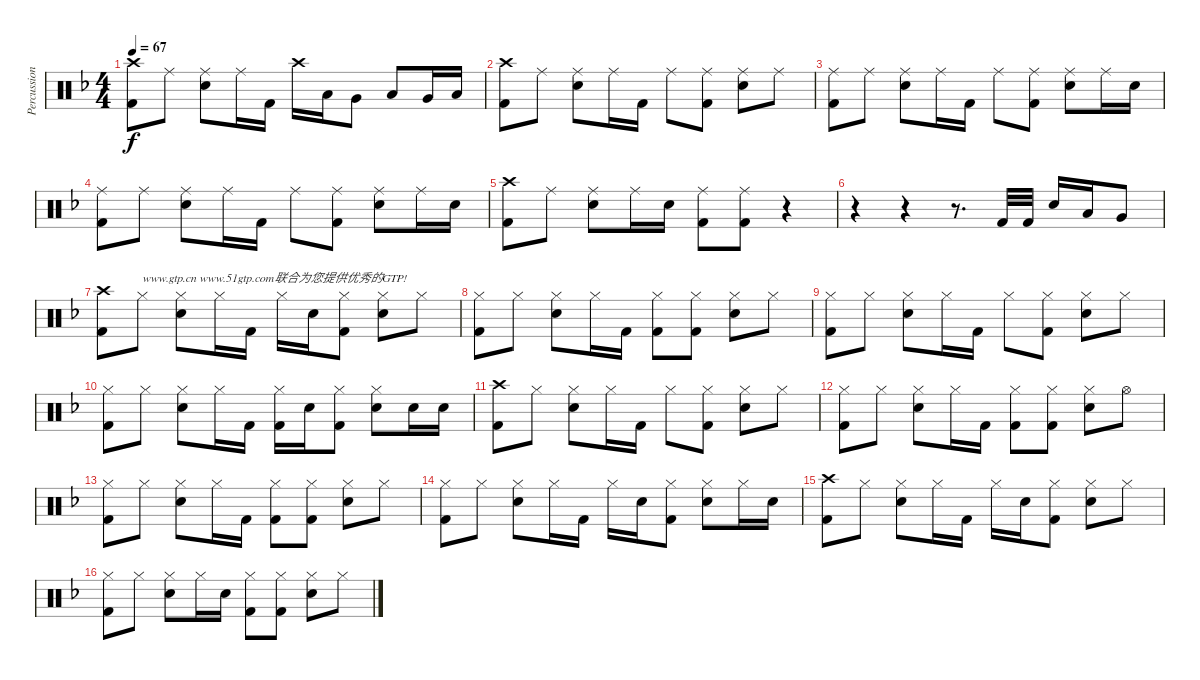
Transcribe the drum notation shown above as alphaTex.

\track ("Percussion" "Percussion") {instrument percussion}
\staff {score}
\articulation defaults
\ts (4 4)
\tempo 67
\clef neutral
\ks f
("Crash high (hit)" "Kick (hit) 2").8{dy f} "Ride (middle)".8 ("Ride (middle)" "Electric Snare (hit)").8 "Ride (middle)".16 "Kick (hit) 2".16 "Crash high (hit)".16 "Low Tom (hit)".16 "Very Low Tom (hit)".8 "Low Tom (hit)".8 "Very Low Tom (hit)".16 "Low Floor Tom (hit)".16 |
("Crash high (hit)" "Kick (hit) 2").8 "Ride (middle)".8 ("Ride (middle)" "Snare (hit) 2").8 "Ride (middle)".16 "Kick (hit) 2".16 "Ride (middle)".8 ("Ride (middle)" "Kick (hit) 2").8 ("Ride (middle)" "Electric Snare (hit)").8 "Ride (middle)".8 |
("Ride (middle)" "Kick (hit) 2").8 "Ride (middle)".8 ("Ride (middle)" "Snare (hit) 2").8 "Ride (middle)".16 "Kick (hit) 2".16 "Ride (middle)".8 ("Ride (middle)" "Kick (hit) 2").8 ("Ride (middle)" "Electric Snare (hit)").8 "Ride (middle)".16 "Electric Snare (hit)".16 |
("Ride (middle)" "Kick (hit) 2").8 "Ride (middle)".8 ("Ride (middle)" "Snare (hit) 2").8 "Ride (middle)".16 "Kick (hit) 2".16 "Ride (middle)".8 ("Ride (middle)" "Kick (hit) 2").8 ("Ride (middle)" "Electric Snare (hit)").8 "Ride (middle)".16 "Electric Snare (hit)".16 |
("Crash high (hit)" "Kick (hit) 2").8 "Ride (middle)".8 ("Ride (middle)" "Electric Snare (hit)").8 "Ride (middle)".16 "Electric Snare (hit)".16 ("Ride (middle)" "Kick (hit) 2").8 ("Ride (middle)" "Kick (hit) 2").8 r.4 |
r.4 r.4 r.8{d} "Kick (hit) 2".32 "Kick (hit) 2".32 "Electric Snare (hit)".16 "Low Tom (hit)".16 "Very Low Tom (hit)".8 |
("Crash high (hit)" "Kick (hit) 2").8 "Hi-Hat (closed)".8{txt "www.gtp.cn www.51gtp.com联合为您提供优秀的GTP!"} ("Hi-Hat (closed)" "Electric Snare (hit)").8 "Hi-Hat (closed)".16 "Kick (hit) 2".16 "Hi-Hat (closed)".16 "Electric Snare (hit)".16 ("Hi-Hat (closed)" "Kick (hit) 2").8 ("Hi-Hat (closed)" "Electric Snare (hit)").8 "Hi-Hat (closed)".8 |
("Hi-Hat (closed)" "Kick (hit) 2").8 "Hi-Hat (closed)".8 ("Hi-Hat (closed)" "Electric Snare (hit)").8 "Hi-Hat (closed)".16 "Kick (hit) 2".16 ("Hi-Hat (closed)" "Kick (hit) 2").8 ("Hi-Hat (closed)" "Kick (hit) 2").8 ("Hi-Hat (closed)" "Electric Snare (hit)").8 "Hi-Hat (closed)".8 |
("Hi-Hat (closed)" "Kick (hit) 2").8 "Hi-Hat (closed)".8 ("Hi-Hat (closed)" "Electric Snare (hit)").8 "Hi-Hat (closed)".16 "Kick (hit) 2".16 "Hi-Hat (closed)".8 ("Hi-Hat (closed)" "Kick (hit) 2").8 ("Hi-Hat (closed)" "Electric Snare (hit)").8 "Hi-Hat (closed)".8 |
("Hi-Hat (closed)" "Kick (hit) 2").8 "Hi-Hat (closed)".8 ("Hi-Hat (closed)" "Electric Snare (hit)").8 "Hi-Hat (closed)".16 "Kick (hit) 2".16 ("Hi-Hat (closed)" "Kick (hit) 2").16 "Electric Snare (hit)".16 ("Hi-Hat (closed)" "Kick (hit) 2").8 ("Hi-Hat (closed)" "Electric Snare (hit)").8 "Electric Snare (hit)".16 "Electric Snare (hit)".16 |
("Crash high (hit)" "Kick (hit) 2").8 "Hi-Hat (closed)".8 ("Hi-Hat (closed)" "Electric Snare (hit)").8 "Hi-Hat (closed)".16 "Kick (hit) 2".16 "Hi-Hat (closed)".8 ("Hi-Hat (closed)" "Kick (hit) 2").8 ("Hi-Hat (closed)" "Electric Snare (hit)").8 "Hi-Hat (closed)".8 |
("Hi-Hat (closed)" "Kick (hit) 2").8 "Hi-Hat (closed)".8 ("Hi-Hat (closed)" "Electric Snare (hit)").8 "Hi-Hat (closed)".16 "Kick (hit) 2".16 ("Hi-Hat (closed)" "Kick (hit) 2").8 ("Hi-Hat (closed)" "Kick (hit) 2").8 ("Hi-Hat (closed)" "Electric Snare (hit)").8 "Hi-Hat (open)".8 |
("Hi-Hat (closed)" "Kick (hit) 2").8 "Hi-Hat (closed)".8 ("Hi-Hat (closed)" "Electric Snare (hit)").8 "Hi-Hat (closed)".16 "Kick (hit) 2".16 ("Hi-Hat (closed)" "Kick (hit) 2").8 ("Hi-Hat (closed)" "Kick (hit) 2").8 ("Hi-Hat (closed)" "Electric Snare (hit)").8 "Hi-Hat (closed)".8 |
("Hi-Hat (closed)" "Kick (hit) 2").8 "Hi-Hat (closed)".8 ("Hi-Hat (closed)" "Electric Snare (hit)").8 "Hi-Hat (closed)".16 "Kick (hit) 2".16 "Hi-Hat (closed)".16 "Electric Snare (hit)".16 ("Hi-Hat (closed)" "Kick (hit) 2").8 ("Hi-Hat (closed)" "Electric Snare (hit)").8 "Hi-Hat (closed)".16 "Electric Snare (hit)".16 |
("Crash high (hit)" "Kick (hit) 2").8 "Hi-Hat (closed)".8 ("Hi-Hat (closed)" "Electric Snare (hit)").8 "Hi-Hat (closed)".16 "Kick (hit) 2".16 "Hi-Hat (closed)".16 "Electric Snare (hit)".16 ("Hi-Hat (closed)" "Kick (hit) 2").8 ("Hi-Hat (closed)" "Electric Snare (hit)").8 "Hi-Hat (closed)".8 |
("Hi-Hat (closed)" "Kick (hit) 2").8 "Hi-Hat (closed)".8 ("Hi-Hat (closed)" "Electric Snare (hit)").8 "Hi-Hat (closed)".16 "Electric Snare (hit)".16 ("Hi-Hat (closed)" "Kick (hit) 2").8 ("Hi-Hat (closed)" "Kick (hit) 2").8 ("Hi-Hat (closed)" "Electric Snare (hit)").8 "Hi-Hat (closed)".8
